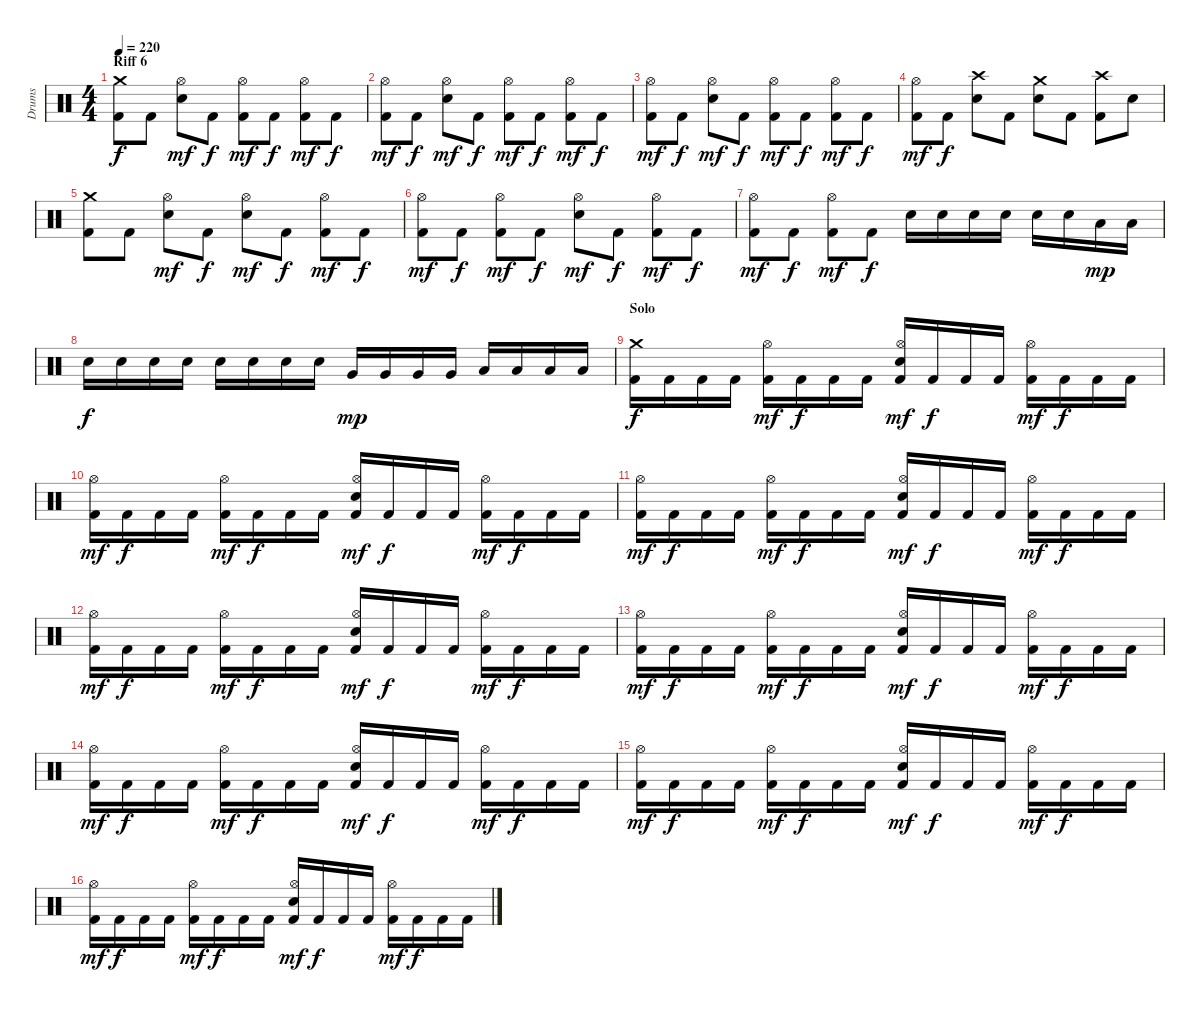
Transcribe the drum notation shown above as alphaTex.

\track ("Drums" "Drums") {instrument percussion}
\staff {score}
\articulation defaults
\ts (4 4)
\section ("" "Riff 6")
\tempo 220
\clef neutral
\ks c
("Crash medium (hit)" "Kick (hit) 2").8{dy f} "Kick (hit) 2".8 ("Hi-Hat (open)" "Electric Snare (hit)").8{dy mf} "Kick (hit) 2".8{dy f} ("Hi-Hat (open)" "Kick (hit) 2").8{dy mf} "Kick (hit) 2".8{dy f} ("Hi-Hat (open)" "Kick (hit) 2").8{dy mf} "Kick (hit) 2".8{dy f} |
("Hi-Hat (open)" "Kick (hit) 2").8{dy mf} "Kick (hit) 2".8{dy f} ("Hi-Hat (open)" "Electric Snare (hit)").8{dy mf} "Kick (hit) 2".8{dy f} ("Hi-Hat (open)" "Kick (hit) 2").8{dy mf} "Kick (hit) 2".8{dy f} ("Hi-Hat (open)" "Kick (hit) 2").8{dy mf} "Kick (hit) 2".8{dy f} |
("Hi-Hat (open)" "Kick (hit) 2").8{dy mf} "Kick (hit) 2".8{dy f} ("Hi-Hat (open)" "Electric Snare (hit)").8{dy mf} "Kick (hit) 2".8{dy f} ("Hi-Hat (open)" "Kick (hit) 2").8{dy mf} "Kick (hit) 2".8{dy f} ("Hi-Hat (open)" "Kick (hit) 2").8{dy mf} "Kick (hit) 2".8{dy f} |
("Hi-Hat (open)" "Kick (hit) 2").8{dy mf} "Kick (hit) 2".8{dy f} ("Crash high (hit)" "Electric Snare (hit)").8 "Kick (hit) 2".8 ("Crash medium (hit)" "Electric Snare (hit)").8 "Kick (hit) 2".8 ("Crash high (hit)" "Kick (hit) 2").8 "Electric Snare (hit)".8 |
("Crash medium (hit)" "Kick (hit) 2").8 "Kick (hit) 2".8 ("Hi-Hat (open)" "Electric Snare (hit)").8{dy mf} "Kick (hit) 2".8{dy f} ("Hi-Hat (open)" "Electric Snare (hit)").8{dy mf} "Kick (hit) 2".8{dy f} ("Hi-Hat (open)" "Kick (hit) 2").8{dy mf} "Kick (hit) 2".8{dy f} |
("Hi-Hat (open)" "Kick (hit) 2").8{dy mf} "Kick (hit) 2".8{dy f} ("Hi-Hat (open)" "Kick (hit) 2").8{dy mf} "Kick (hit) 2".8{dy f} ("Hi-Hat (open)" "Electric Snare (hit)").8{dy mf} "Kick (hit) 2".8{dy f} ("Hi-Hat (open)" "Kick (hit) 2").8{dy mf} "Kick (hit) 2".8{dy f} |
("Hi-Hat (open)" "Kick (hit) 2").8{dy mf} "Kick (hit) 2".8{dy f} ("Hi-Hat (open)" "Kick (hit) 2").8{dy mf} "Kick (hit) 2".8{dy f} "Electric Snare (hit)".16 "Electric Snare (hit)".16 "Electric Snare (hit)".16 "Electric Snare (hit)".16 "Electric Snare (hit)".16 "Electric Snare (hit)".16 "Low Tom (hit)".16{dy mp} "Low Tom (hit)".16 |
"Electric Snare (hit)".16{dy f} "Electric Snare (hit)".16 "Electric Snare (hit)".16 "Electric Snare (hit)".16 "Electric Snare (hit)".16 "Electric Snare (hit)".16 "Electric Snare (hit)".16 "Electric Snare (hit)".16 "Very Low Tom (hit)".16{dy mp} "Very Low Tom (hit)".16 "Very Low Tom (hit)".16 "Very Low Tom (hit)".16 "Low Floor Tom (hit)".16 "Low Floor Tom (hit)".16 "Low Floor Tom (hit)".16 "Low Floor Tom (hit)".16 |
\section ("" "Solo ")
("Crash medium (hit)" "Kick (hit) 2").16{dy f} "Kick (hit) 2".16 "Kick (hit) 2".16 "Kick (hit) 2".16 ("Hi-Hat (open)" "Kick (hit) 2").16{dy mf} "Kick (hit) 2".16{dy f} "Kick (hit) 2".16 "Kick (hit) 2".16 ("Hi-Hat (open)" "Electric Snare (hit)" "Kick (hit) 2").16{dy mf} "Kick (hit) 2".16{dy f} "Kick (hit) 2".16 "Kick (hit) 2".16 ("Hi-Hat (open)" "Kick (hit) 2").16{dy mf} "Kick (hit) 2".16{dy f} "Kick (hit) 2".16 "Kick (hit) 2".16 |
("Hi-Hat (open)" "Kick (hit) 2").16{dy mf} "Kick (hit) 2".16{dy f} "Kick (hit) 2".16 "Kick (hit) 2".16 ("Hi-Hat (open)" "Kick (hit) 2").16{dy mf} "Kick (hit) 2".16{dy f} "Kick (hit) 2".16 "Kick (hit) 2".16 ("Hi-Hat (open)" "Electric Snare (hit)" "Kick (hit) 2").16{dy mf} "Kick (hit) 2".16{dy f} "Kick (hit) 2".16 "Kick (hit) 2".16 ("Hi-Hat (open)" "Kick (hit) 2").16{dy mf} "Kick (hit) 2".16{dy f} "Kick (hit) 2".16 "Kick (hit) 2".16 |
("Hi-Hat (open)" "Kick (hit) 2").16{dy mf} "Kick (hit) 2".16{dy f} "Kick (hit) 2".16 "Kick (hit) 2".16 ("Hi-Hat (open)" "Kick (hit) 2").16{dy mf} "Kick (hit) 2".16{dy f} "Kick (hit) 2".16 "Kick (hit) 2".16 ("Hi-Hat (open)" "Electric Snare (hit)" "Kick (hit) 2").16{dy mf} "Kick (hit) 2".16{dy f} "Kick (hit) 2".16 "Kick (hit) 2".16 ("Hi-Hat (open)" "Kick (hit) 2").16{dy mf} "Kick (hit) 2".16{dy f} "Kick (hit) 2".16 "Kick (hit) 2".16 |
("Hi-Hat (open)" "Kick (hit) 2").16{dy mf} "Kick (hit) 2".16{dy f} "Kick (hit) 2".16 "Kick (hit) 2".16 ("Hi-Hat (open)" "Kick (hit) 2").16{dy mf} "Kick (hit) 2".16{dy f} "Kick (hit) 2".16 "Kick (hit) 2".16 ("Hi-Hat (open)" "Electric Snare (hit)" "Kick (hit) 2").16{dy mf} "Kick (hit) 2".16{dy f} "Kick (hit) 2".16 "Kick (hit) 2".16 ("Hi-Hat (open)" "Kick (hit) 2").16{dy mf} "Kick (hit) 2".16{dy f} "Kick (hit) 2".16 "Kick (hit) 2".16 |
("Hi-Hat (open)" "Kick (hit) 2").16{dy mf} "Kick (hit) 2".16{dy f} "Kick (hit) 2".16 "Kick (hit) 2".16 ("Hi-Hat (open)" "Kick (hit) 2").16{dy mf} "Kick (hit) 2".16{dy f} "Kick (hit) 2".16 "Kick (hit) 2".16 ("Hi-Hat (open)" "Electric Snare (hit)" "Kick (hit) 2").16{dy mf} "Kick (hit) 2".16{dy f} "Kick (hit) 2".16 "Kick (hit) 2".16 ("Hi-Hat (open)" "Kick (hit) 2").16{dy mf} "Kick (hit) 2".16{dy f} "Kick (hit) 2".16 "Kick (hit) 2".16 |
("Hi-Hat (open)" "Kick (hit) 2").16{dy mf} "Kick (hit) 2".16{dy f} "Kick (hit) 2".16 "Kick (hit) 2".16 ("Hi-Hat (open)" "Kick (hit) 2").16{dy mf} "Kick (hit) 2".16{dy f} "Kick (hit) 2".16 "Kick (hit) 2".16 ("Hi-Hat (open)" "Electric Snare (hit)" "Kick (hit) 2").16{dy mf} "Kick (hit) 2".16{dy f} "Kick (hit) 2".16 "Kick (hit) 2".16 ("Hi-Hat (open)" "Kick (hit) 2").16{dy mf} "Kick (hit) 2".16{dy f} "Kick (hit) 2".16 "Kick (hit) 2".16 |
("Hi-Hat (open)" "Kick (hit) 2").16{dy mf} "Kick (hit) 2".16{dy f} "Kick (hit) 2".16 "Kick (hit) 2".16 ("Hi-Hat (open)" "Kick (hit) 2").16{dy mf} "Kick (hit) 2".16{dy f} "Kick (hit) 2".16 "Kick (hit) 2".16 ("Hi-Hat (open)" "Electric Snare (hit)" "Kick (hit) 2").16{dy mf} "Kick (hit) 2".16{dy f} "Kick (hit) 2".16 "Kick (hit) 2".16 ("Hi-Hat (open)" "Kick (hit) 2").16{dy mf} "Kick (hit) 2".16{dy f} "Kick (hit) 2".16 "Kick (hit) 2".16 |
("Hi-Hat (open)" "Kick (hit) 2").16{dy mf} "Kick (hit) 2".16{dy f} "Kick (hit) 2".16 "Kick (hit) 2".16 ("Hi-Hat (open)" "Kick (hit) 2").16{dy mf} "Kick (hit) 2".16{dy f} "Kick (hit) 2".16 "Kick (hit) 2".16 ("Hi-Hat (open)" "Electric Snare (hit)" "Kick (hit) 2").16{dy mf} "Kick (hit) 2".16{dy f} "Kick (hit) 2".16 "Kick (hit) 2".16 ("Hi-Hat (open)" "Kick (hit) 2").16{dy mf} "Kick (hit) 2".16{dy f} "Kick (hit) 2".16 "Kick (hit) 2".16
